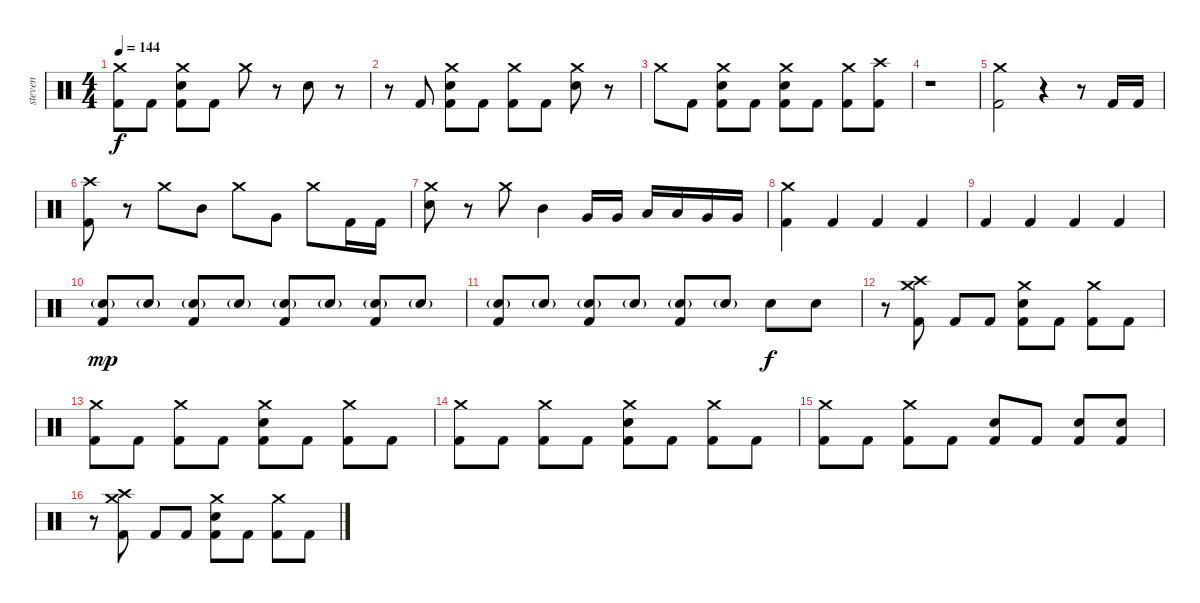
\track ("steven" "steven") {instrument percussion}
\staff {score}
\articulation defaults
\ts (4 4)
\tempo 144
\clef neutral
\ks c
("Crash medium (hit)" "Kick (hit) 2").8{dy f} "Kick (hit) 2".8 ("Crash medium (hit)" "Electric Snare (hit)" "Kick (hit) 2").8 "Kick (hit) 2".8 "Crash medium (hit)".8 r.8 "Electric Snare (hit)".8 r.8 |
r.8 "Kick (hit) 2".8 ("Crash medium (hit)" "Electric Snare (hit)" "Kick (hit) 2").8 "Kick (hit) 2".8 ("Crash medium (hit)" "Kick (hit) 2").8 "Kick (hit) 2".8 ("Crash medium (hit)" "Electric Snare (hit)").8 r.8 |
"Crash medium (hit)".8 "Kick (hit) 2".8 ("Crash medium (hit)" "Electric Snare (hit)" "Kick (hit) 2").8 "Kick (hit) 2".8 ("Crash medium (hit)" "Electric Snare (hit)" "Kick (hit) 2").8 "Kick (hit) 2".8 ("Crash medium (hit)" "Kick (hit) 2").8 ("Crash high (hit)" "Kick (hit) 2").8 |
r.1 |
("Crash medium (hit)" "Kick (hit) 2").2 r.4 r.8 "Kick (hit) 2".16 "Kick (hit) 2".16 |
("Crash high (hit)" "Kick (hit) 2").8 r.8 "Crash medium (hit)".8 "Mid Tom (hit)".8 "Crash medium (hit)".8 "Very Low Tom (hit)".8 "Crash medium (hit)".8 "Kick (hit) 2".16 "Kick (hit) 2".16 |
("Crash medium (hit)" "Electric Snare (hit)").8 r.8 "Crash medium (hit)".8 "Mid Tom (hit)".4 "Very Low Tom (hit)".16 "Very Low Tom (hit)".16 "Low Tom (hit)".16 "Low Tom (hit)".16 "Very Low Tom (hit)".16 "Very Low Tom (hit)".16 |
("Crash medium (hit)" "Kick (hit) 2").4 "Kick (hit) 2".4 "Kick (hit) 2".4 "Kick (hit) 2".4 |
"Kick (hit) 2".4 "Kick (hit) 2".4 "Kick (hit) 2".4 "Kick (hit) 2".4 |
("Electric Snare (hit)"{g} "Kick (hit) 2").8{dy mp} "Electric Snare (hit)"{g}.8 ("Electric Snare (hit)"{g} "Kick (hit) 2").8 "Electric Snare (hit)"{g}.8 ("Electric Snare (hit)"{g} "Kick (hit) 2").8 "Electric Snare (hit)"{g}.8 ("Electric Snare (hit)"{g} "Kick (hit) 2").8 "Electric Snare (hit)"{g}.8 |
("Electric Snare (hit)"{g} "Kick (hit) 2").8 "Electric Snare (hit)"{g}.8 ("Electric Snare (hit)"{g} "Kick (hit) 2").8 "Electric Snare (hit)"{g}.8 ("Electric Snare (hit)"{g} "Kick (hit) 2").8 "Electric Snare (hit)"{g}.8 "Electric Snare (hit)".8{dy f} "Electric Snare (hit)".8 |
r.8 ("Crash medium (hit)" "Crash high (hit)" "Kick (hit) 2").8 "Kick (hit) 2".8 "Kick (hit) 2".8 ("Crash medium (hit)" "Electric Snare (hit)" "Kick (hit) 2").8 "Kick (hit) 2".8 ("Crash medium (hit)" "Kick (hit) 2").8 "Kick (hit) 2".8 |
("Crash medium (hit)" "Kick (hit) 2").8 "Kick (hit) 2".8 ("Crash medium (hit)" "Kick (hit) 2").8 "Kick (hit) 2".8 ("Crash medium (hit)" "Electric Snare (hit)" "Kick (hit) 2").8 "Kick (hit) 2".8 ("Crash medium (hit)" "Kick (hit) 2").8 "Kick (hit) 2".8 |
("Crash medium (hit)" "Kick (hit) 2").8 "Kick (hit) 2".8 ("Crash medium (hit)" "Kick (hit) 2").8 "Kick (hit) 2".8 ("Crash medium (hit)" "Electric Snare (hit)" "Kick (hit) 2").8 "Kick (hit) 2".8 ("Crash medium (hit)" "Kick (hit) 2").8 "Kick (hit) 2".8 |
("Crash medium (hit)" "Kick (hit) 2").8 "Kick (hit) 2".8 ("Crash medium (hit)" "Kick (hit) 2").8 "Kick (hit) 2".8 ("Electric Snare (hit)" "Kick (hit) 2").8 "Kick (hit) 2".8 ("Electric Snare (hit)" "Kick (hit) 2").8 ("Electric Snare (hit)" "Kick (hit) 2").8 |
r.8 ("Crash medium (hit)" "Crash high (hit)" "Kick (hit) 2").8 "Kick (hit) 2".8 "Kick (hit) 2".8 ("Crash medium (hit)" "Electric Snare (hit)" "Kick (hit) 2").8 "Kick (hit) 2".8 ("Crash medium (hit)" "Kick (hit) 2").8 "Kick (hit) 2".8
